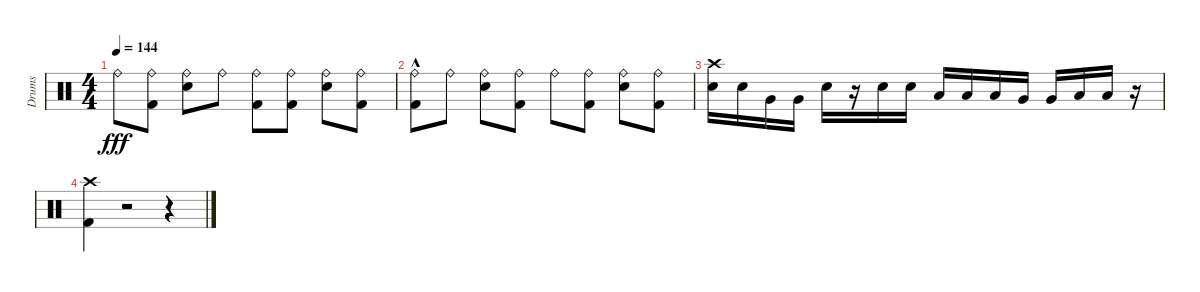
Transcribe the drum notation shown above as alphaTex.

\track ("Drums" "Drums") {instrument percussion}
\staff {score}
\articulation defaults
\ts (4 4)
\tempo 144
\clef neutral
\ks c "Ride (bell)".8{dy fff}
("Ride (bell)" "Kick (hit) 2").8 ("Ride (bell)" "Snare (hit) 2").8 "Ride (bell)".8 ("Ride (bell)" "Kick (hit) 2").8 ("Ride (bell)" "Kick (hit) 2").8 ("Ride (bell)" "Snare (hit) 2").8 ("Ride (bell)" "Kick (hit) 2").8 |
("Kick (hit) 2"{hac} "Ride (bell)").8 "Ride (bell)".8 ("Snare (hit) 2" "Ride (bell)").8 ("Kick (hit) 2" "Ride (bell)").8 "Ride (bell)".8 ("Kick (hit) 2" "Ride (bell)").8 ("Snare (hit) 2" "Ride (bell)").8 ("Kick (hit) 2" "Ride (bell)").8 |
("Snare (hit) 2" "Crash high (hit)").16 "Snare (hit) 2".16 "Very Low Tom (hit)".16 "Very Low Tom (hit)".16 "Snare (hit) 2".16 r.16 "Snare (hit) 2".16 "Snare (hit) 2".16 "Low Tom (hit)".16 "Low Tom (hit)".16 "Low Tom (hit)".16 "Very Low Tom (hit)".16 "Very Low Tom (hit)".16 "Low Floor Tom (hit)".16 "Low Floor Tom (hit)".16 r.16 |
("Kick (hit) 2" "Crash high (hit)").4 r.2 r.4
